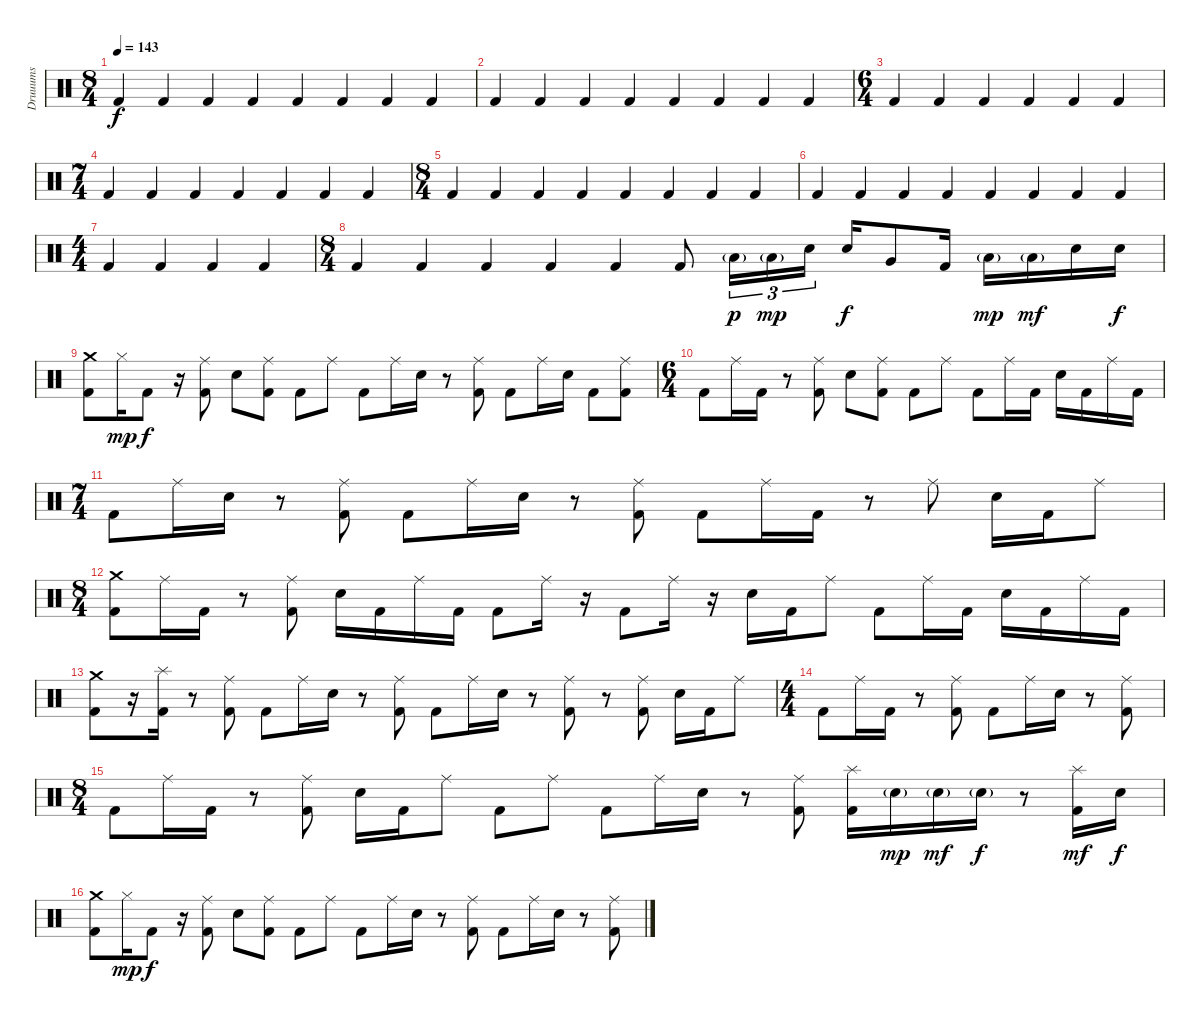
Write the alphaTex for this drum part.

\track ("Druuums" "Druuums") {instrument percussion}
\staff {score}
\articulation defaults
\ts (8 4)
\tempo 143
\clef neutral
\ks c "Kick (hit) 2".4{dy f} "Kick (hit) 2".4 "Kick (hit) 2".4 "Kick (hit) 2".4 "Kick (hit) 2".4 "Kick (hit) 2".4 "Kick (hit) 2".4 "Kick (hit) 2".4
|
"Kick (hit) 2".4 "Kick (hit) 2".4 "Kick (hit) 2".4 "Kick (hit) 2".4 "Kick (hit) 2".4 "Kick (hit) 2".4 "Kick (hit) 2".4 "Kick (hit) 2".4 |
\ts (6 4)
"Kick (hit) 2".4 "Kick (hit) 2".4 "Kick (hit) 2".4 "Kick (hit) 2".4 "Kick (hit) 2".4 "Kick (hit) 2".4 |
\ts (7 4)
"Kick (hit) 2".4 "Kick (hit) 2".4 "Kick (hit) 2".4 "Kick (hit) 2".4 "Kick (hit) 2".4 "Kick (hit) 2".4 "Kick (hit) 2".4 |
\ts (8 4)
"Kick (hit) 2".4 "Kick (hit) 2".4 "Kick (hit) 2".4 "Kick (hit) 2".4 "Kick (hit) 2".4 "Kick (hit) 2".4 "Kick (hit) 2".4 "Kick (hit) 2".4 |
"Kick (hit) 2".4 "Kick (hit) 2".4 "Kick (hit) 2".4 "Kick (hit) 2".4 "Kick (hit) 2".4 "Kick (hit) 2".4 "Kick (hit) 2".4 "Kick (hit) 2".4 |
\ts (4 4)
"Kick (hit) 2".4 "Kick (hit) 2".4 "Kick (hit) 2".4 "Kick (hit) 2".4 |
\ts (8 4)
"Kick (hit) 2".4 "Kick (hit) 2".4 "Kick (hit) 2".4 "Kick (hit) 2".4 "Kick (hit) 2".4 "Kick (hit) 2".8 "Low Tom (hit)"{g}.16{tu (3 2) dy p volume 16} "Low Tom (hit)"{g}.16{tu (3 2) dy mp} "Electric Snare (hit)".16{tu (3 2)} "Electric Snare (hit)".16{dy f} "Very Low Tom (hit)".8 "Kick (hit) 2".16 "Low Tom (hit)"{g}.16{dy mp} "Low Tom (hit)"{g}.16{dy mf} "Electric Snare (hit)".16 "Electric Snare (hit)".16{dy f} |
("Crash medium (hit)" "Kick (hit) 2").8 "Hi-Hat (closed)".16{dy mp} "Kick (hit) 2".8{dy f} r.16 ("Ride (middle)" "Kick (hit) 2").8 "Electric Snare (hit)".8 ("Ride (middle)" "Kick (hit) 2").8 "Kick (hit) 2".8 "Ride (middle)".8 "Kick (hit) 2".8 "Ride (middle)".16 "Electric Snare (hit)".16 r.8 ("Ride (middle)" "Kick (hit) 2").8 "Kick (hit) 2".8 "Ride (middle)".16 "Electric Snare (hit)".16 "Kick (hit) 2".8 ("Ride (middle)" "Kick (hit) 2").8 |
\ts (6 4)
"Kick (hit) 2".8 "Ride (middle)".16 "Kick (hit) 2".16 r.8 ("Ride (middle)" "Kick (hit) 2").8 "Electric Snare (hit)".8 ("Ride (middle)" "Kick (hit) 2").8 "Kick (hit) 2".8 "Ride (middle)".8 "Kick (hit) 2".8 "Ride (middle)".16 "Kick (hit) 2".16 "Electric Snare (hit)".16 "Kick (hit) 2".16 "Ride (middle)".16 "Kick (hit) 2".16 |
\ts (7 4)
"Kick (hit) 2".8 "Ride (middle)".16 "Electric Snare (hit)".16 r.8 ("Ride (middle)" "Kick (hit) 2").8 "Kick (hit) 2".8 "Ride (middle)".16 "Electric Snare (hit)".16 r.8 ("Ride (middle)" "Kick (hit) 2").8 "Kick (hit) 2".8 "Ride (middle)".16 "Kick (hit) 2".16 r.8 "Ride (middle)".8 "Electric Snare (hit)".16 "Kick (hit) 2".16 "Ride (middle)".8 |
\ts (8 4)
("Crash medium (hit)" "Kick (hit) 2").8 "Ride (middle)".16 "Kick (hit) 2".16 r.8 ("Ride (middle)" "Kick (hit) 2").8 "Electric Snare (hit)".16 "Kick (hit) 2".16 "Ride (middle)".16 "Kick (hit) 2".16 "Kick (hit) 2".8 "Ride (middle)".16 r.16 "Kick (hit) 2".8 "Ride (middle)".16 r.16 "Electric Snare (hit)".16 "Kick (hit) 2".16 "Ride (middle)".8 "Kick (hit) 2".8 "Ride (middle)".16 "Kick (hit) 2".16 "Electric Snare (hit)".16 "Kick (hit) 2".16 "Ride (middle)".16 "Kick (hit) 2".16 |
("Crash medium (hit)" "Kick (hit) 2").8 r.16 ("Splash (hit)" "Kick (hit) 2").16 r.8 ("Ride (middle)" "Kick (hit) 2").8 "Kick (hit) 2".8 "Ride (middle)".16 "Electric Snare (hit)".16 r.8 ("Ride (middle)" "Kick (hit) 2").8 "Kick (hit) 2".8 "Ride (middle)".16 "Electric Snare (hit)".16 r.8 ("Ride (middle)" "Kick (hit) 2").8 r.8 ("Ride (middle)" "Kick (hit) 2").8 "Electric Snare (hit)".16 "Kick (hit) 2".16 "Ride (middle)".8 |
\ts (4 4)
"Kick (hit) 2".8 "Ride (middle)".16 "Kick (hit) 2".16 r.8 ("Ride (middle)" "Kick (hit) 2").8 "Kick (hit) 2".8 "Ride (middle)".16 "Electric Snare (hit)".16 r.8 ("Ride (middle)" "Kick (hit) 2").8 |
\ts (8 4)
"Kick (hit) 2".8 "Ride (middle)".16 "Kick (hit) 2".16 r.8 ("Ride (middle)" "Kick (hit) 2").8 "Electric Snare (hit)".16 "Kick (hit) 2".16 "Ride (middle)".8 "Kick (hit) 2".8 "Ride (middle)".8 "Kick (hit) 2".8 "Ride (middle)".16 "Electric Snare (hit)".16 r.8 ("Ride (middle)" "Kick (hit) 2").8 ("Splash (hit)" "Kick (hit) 2").16 "Electric Snare (hit)"{g}.16{dy mp} "Electric Snare (hit)"{g}.16{dy mf} "Electric Snare (hit)"{g}.16{dy f} r.8 ("Splash (hit)" "Kick (hit) 2").16{dy mf} "Electric Snare (hit)".16{dy f} |
("Crash medium (hit)" "Kick (hit) 2").8 "Hi-Hat (closed)".16{dy mp} "Kick (hit) 2".8{dy f} r.16 ("Ride (middle)" "Kick (hit) 2").8 "Electric Snare (hit)".8 ("Ride (middle)" "Kick (hit) 2").8 "Kick (hit) 2".8 "Ride (middle)".8 "Kick (hit) 2".8 "Ride (middle)".16 "Electric Snare (hit)".16 r.8 ("Ride (middle)" "Kick (hit) 2").8 "Kick (hit) 2".8 "Ride (middle)".16 "Electric Snare (hit)".16 r.8 ("Ride (middle)" "Kick (hit) 2").8
